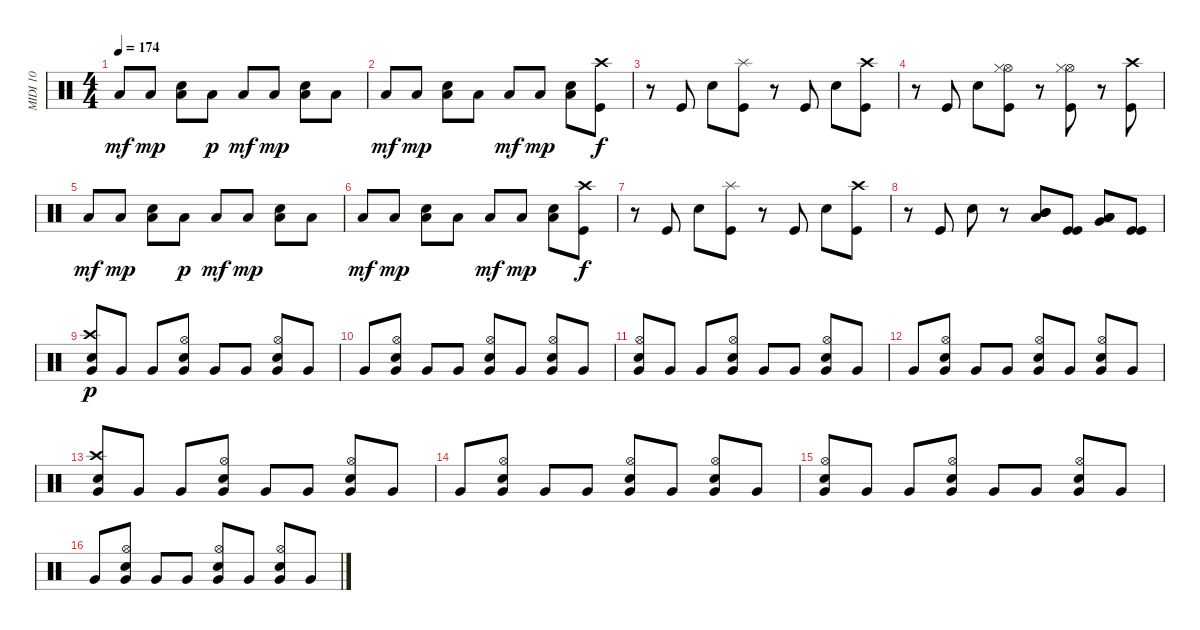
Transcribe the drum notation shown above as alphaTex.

\track ("MIDI 10" "MIDI 10") {instrument percussion}
\staff {score}
\articulation defaults
\ts (4 4)
\tempo 174
\clef neutral
\ks c "Low Floor Tom (hit)".8{dy mf} "Low Floor Tom (hit)".8{dy mp}
("Snare (hit) 2" "Low Floor Tom (hit)").8 "Low Floor Tom (hit)".8{dy p} "Low Floor Tom (hit)".8{dy mf} "Low Floor Tom (hit)".8{dy mp} ("Snare (hit) 2" "Low Floor Tom (hit)").8 "Low Floor Tom (hit)".8 |
"Low Floor Tom (hit)".8{dy mf} "Low Floor Tom (hit)".8{dy mp} ("Snare (hit) 2" "Low Floor Tom (hit)").8 "Low Floor Tom (hit)".8 "Low Floor Tom (hit)".8{dy mf} "Low Floor Tom (hit)".8{dy mp} ("Snare (hit) 2" "Low Floor Tom (hit)").8 ("Kick (hit)" "Crash high (hit)").8{dy f} |
r.8 "Kick (hit)".8 "Snare (hit) 2".8 ("Kick (hit)" "Splash (hit)").8 r.8 "Kick (hit)".8 "Snare (hit) 2".8 ("Kick (hit)" "Crash high (hit)").8 |
r.8 "Kick (hit)".8 "Snare (hit) 2".8 ("Kick (hit)" "Hi-Hat (open)" "Hi-Hat (closed)").8 r.8 ("Kick (hit)" "Hi-Hat (open)" "Hi-Hat (closed)").8 r.8 ("Kick (hit)" "Crash high (hit)").8 |
"Low Floor Tom (hit)".8{dy mf} "Low Floor Tom (hit)".8{dy mp} ("Snare (hit) 2" "Low Floor Tom (hit)").8 "Low Floor Tom (hit)".8{dy p} "Low Floor Tom (hit)".8{dy mf} "Low Floor Tom (hit)".8{dy mp} ("Snare (hit) 2" "Low Floor Tom (hit)").8 "Low Floor Tom (hit)".8 |
"Low Floor Tom (hit)".8{dy mf} "Low Floor Tom (hit)".8{dy mp} ("Snare (hit) 2" "Low Floor Tom (hit)").8 "Low Floor Tom (hit)".8 "Low Floor Tom (hit)".8{dy mf} "Low Floor Tom (hit)".8{dy mp} ("Snare (hit) 2" "Low Floor Tom (hit)").8 ("Kick (hit)" "Crash high (hit)").8{dy f} |
r.8 "Kick (hit)".8 "Snare (hit) 2".8 ("Kick (hit)" "Splash (hit)").8 r.8 "Kick (hit)".8 "Snare (hit) 2".8 ("Kick (hit)" "Crash high (hit)").8 |
r.8 "Kick (hit)".8 "Snare (hit) 2".8 r.8 ("Mid Tom (hit)" "Mid Tom (hit)" "Low Tom (hit)").8 ("Kick (hit)" "Kick (hit)").8 ("Low Tom (hit)" "Low Tom (hit)" "Very Low Tom (hit)").8 ("Kick (hit)" "Kick (hit)").8 |
("Snare (hit) 2" "Crash high (hit)" "Very Low Tom (hit)").8{dy p} "Very Low Tom (hit)".8 "Very Low Tom (hit)".8 ("Snare (hit) 2" "Hi-Hat (open)" "Very Low Tom (hit)").8 "Very Low Tom (hit)".8 "Very Low Tom (hit)".8 ("Snare (hit) 2" "Hi-Hat (open)" "Very Low Tom (hit)").8 "Very Low Tom (hit)".8 |
"Very Low Tom (hit)".8 ("Snare (hit) 2" "Hi-Hat (open)" "Very Low Tom (hit)").8 "Very Low Tom (hit)".8 "Very Low Tom (hit)".8 ("Snare (hit) 2" "Hi-Hat (open)" "Very Low Tom (hit)").8 "Very Low Tom (hit)".8 ("Snare (hit) 2" "Hi-Hat (open)" "Very Low Tom (hit)").8 "Very Low Tom (hit)".8 |
("Snare (hit) 2" "Hi-Hat (open)" "Very Low Tom (hit)").8 "Very Low Tom (hit)".8 "Very Low Tom (hit)".8 ("Snare (hit) 2" "Hi-Hat (open)" "Very Low Tom (hit)").8 "Very Low Tom (hit)".8 "Very Low Tom (hit)".8 ("Snare (hit) 2" "Hi-Hat (open)" "Very Low Tom (hit)").8 "Very Low Tom (hit)".8 |
"Very Low Tom (hit)".8 ("Snare (hit) 2" "Hi-Hat (open)" "Very Low Tom (hit)").8 "Very Low Tom (hit)".8 "Very Low Tom (hit)".8 ("Snare (hit) 2" "Hi-Hat (open)" "Very Low Tom (hit)").8 "Very Low Tom (hit)".8 ("Snare (hit) 2" "Hi-Hat (open)" "Very Low Tom (hit)").8 "Very Low Tom (hit)".8 |
("Snare (hit) 2" "Crash high (hit)" "Very Low Tom (hit)").8 "Very Low Tom (hit)".8 "Very Low Tom (hit)".8 ("Snare (hit) 2" "Hi-Hat (open)" "Very Low Tom (hit)").8 "Very Low Tom (hit)".8 "Very Low Tom (hit)".8 ("Snare (hit) 2" "Hi-Hat (open)" "Very Low Tom (hit)").8 "Very Low Tom (hit)".8 |
"Very Low Tom (hit)".8 ("Snare (hit) 2" "Hi-Hat (open)" "Very Low Tom (hit)").8 "Very Low Tom (hit)".8 "Very Low Tom (hit)".8 ("Snare (hit) 2" "Hi-Hat (open)" "Very Low Tom (hit)").8 "Very Low Tom (hit)".8 ("Snare (hit) 2" "Hi-Hat (open)" "Very Low Tom (hit)").8 "Very Low Tom (hit)".8 |
("Snare (hit) 2" "Hi-Hat (open)" "Very Low Tom (hit)").8 "Very Low Tom (hit)".8 "Very Low Tom (hit)".8 ("Snare (hit) 2" "Hi-Hat (open)" "Very Low Tom (hit)").8 "Very Low Tom (hit)".8 "Very Low Tom (hit)".8 ("Snare (hit) 2" "Hi-Hat (open)" "Very Low Tom (hit)").8 "Very Low Tom (hit)".8 |
"Very Low Tom (hit)".8 ("Snare (hit) 2" "Hi-Hat (open)" "Very Low Tom (hit)").8 "Very Low Tom (hit)".8 "Very Low Tom (hit)".8 ("Snare (hit) 2" "Hi-Hat (open)" "Very Low Tom (hit)").8 "Very Low Tom (hit)".8 ("Snare (hit) 2" "Hi-Hat (open)" "Very Low Tom (hit)").8 "Very Low Tom (hit)".8
